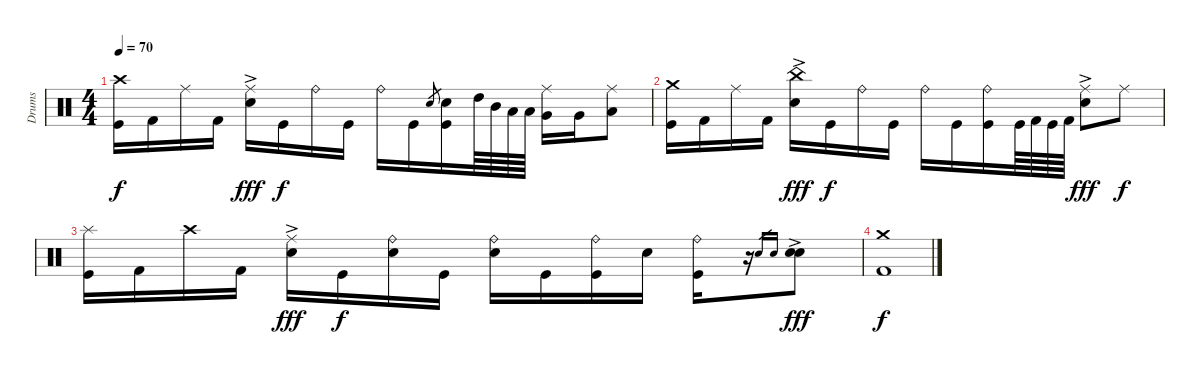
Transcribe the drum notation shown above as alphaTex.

\track ("Drums" "Drums") {instrument percussion}
\staff {score}
\articulation defaults
\ts (4 4)
\tempo 70
\clef neutral
\ks c
("Crash high (hit)" "Kick (hit)").16{dy f} "Kick (hit) 2".16 "Ride (middle)".16 "Kick (hit) 2".16 ("Ride (middle)" "Electric Snare (hit)"{ac}).16{dy fff} "Kick (hit)".16{dy f} "Ride (bell)".16 "Kick (hit)".16 "Ride (bell)".16 "Kick (hit)".16 "Electric Snare (hit)".8{gr} ("Electric Snare (hit)" "Kick (hit)").16 "High Tom (hit)".64 "Mid Tom (hit)".64 "Low Tom (hit)".64 "Low Tom (hit)".64 ("Ride (middle)" "Very Low Tom (hit)").16 "Very Low Tom (hit)".16 ("Ride (middle)" "Low Floor Tom (hit)").8 |
("Crash medium (hit)" "Kick (hit)").16 "Kick (hit) 2".16 "Ride (middle)".16 "Kick (hit) 2".16 ("China (hit)" "Electric Snare (hit)"{ac}).16{dy fff} "Kick (hit)".16{dy f} "Ride (bell)".16 "Kick (hit)".16 "Ride (bell)".16 "Kick (hit)".16 ("Ride (bell)" "Kick (hit)").16 "Kick (hit)".64 "Kick (hit) 2".64 "Kick (hit)".64 "Kick (hit) 2".64 ("Ride (middle)" "Electric Snare (hit)"{ac}).8{dy fff} "Ride (middle)".8{dy f} |
("Splash (hit)" "Kick (hit)").16 "Kick (hit) 2".16 "Crash high (hit)".16 "Kick (hit) 2".16 ("Ride (middle)" "Electric Snare (hit)"{ac}).16{dy fff} "Kick (hit)".16{dy f} ("Ride (bell)" "Snare (hit)").16 "Kick (hit)".16 ("Ride (bell)" "Snare (hit)").16 "Kick (hit)".16 ("Ride (bell)" "Kick (hit)").16 "Snare (hit)".16 ("Ride (bell)" "Kick (hit)").16 r.16 "Electric Snare (hit)".16{gr} "Electric Snare (hit)".16{gr} ("Electric Snare (hit)"{ac} "Electric Snare (hit)"{ac}).8{dy fff} |
("Crash medium (hit)" "Kick (hit) 2").1{dy f}
